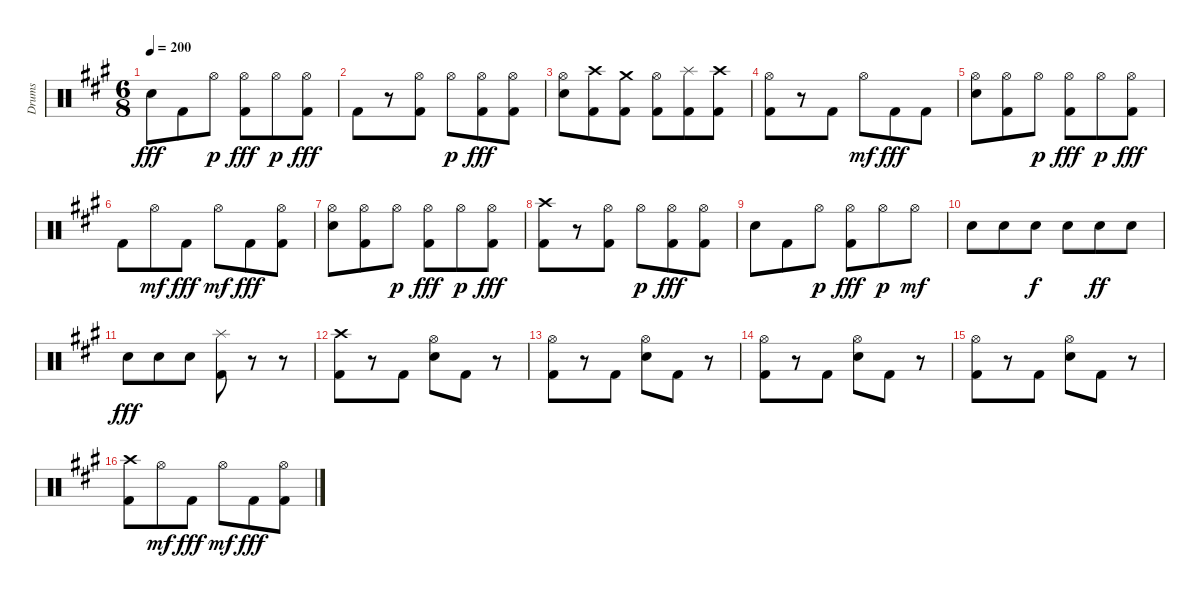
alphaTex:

\track ("Drums" "Drums") {instrument percussion}
\staff {score}
\articulation defaults
\ts (6 8)
\tempo 200
\clef neutral
\ks f#minor "Electric Snare (hit)".8{dy fff} "Kick (hit) 2".8 "Hi-Hat (open)".8{dy p}
("Hi-Hat (open)" "Kick (hit) 2").8{dy fff} "Hi-Hat (open)".8{dy p} ("Hi-Hat (open)" "Kick (hit) 2").8{dy fff} |
"Kick (hit) 2".8 r.8 ("Hi-Hat (open)" "Kick (hit) 2").8 "Hi-Hat (open)".8{dy p} ("Hi-Hat (open)" "Kick (hit) 2").8{dy fff} ("Hi-Hat (open)" "Kick (hit) 2").8 |
("Hi-Hat (open)" "Electric Snare (hit)").8 ("Crash high (hit)" "Kick (hit) 2").8 ("Crash medium (hit)" "Kick (hit) 2").8 ("Hi-Hat (open)" "Kick (hit) 2").8 ("Splash (hit)" "Kick (hit) 2").8 ("Crash high (hit)" "Kick (hit) 2").8 |
("Hi-Hat (open)" "Kick (hit) 2").8 r.8 "Kick (hit) 2".8 "Hi-Hat (open)".8{dy mf} "Kick (hit) 2".8{dy fff} "Kick (hit) 2".8 |
("Hi-Hat (open)" "Electric Snare (hit)").8 ("Hi-Hat (open)" "Kick (hit) 2").8 "Hi-Hat (open)".8{dy p} ("Hi-Hat (open)" "Kick (hit) 2").8{dy fff} "Hi-Hat (open)".8{dy p} ("Hi-Hat (open)" "Kick (hit) 2").8{dy fff} |
"Kick (hit) 2".8 "Hi-Hat (open)".8{dy mf} "Kick (hit) 2".8{dy fff} "Hi-Hat (open)".8{dy mf} "Kick (hit) 2".8{dy fff} ("Hi-Hat (open)" "Kick (hit) 2").8 |
("Hi-Hat (open)" "Electric Snare (hit)").8 ("Hi-Hat (open)" "Kick (hit) 2").8 "Hi-Hat (open)".8{dy p} ("Hi-Hat (open)" "Kick (hit) 2").8{dy fff} "Hi-Hat (open)".8{dy p} ("Hi-Hat (open)" "Kick (hit) 2").8{dy fff} |
("Crash high (hit)" "Kick (hit) 2").8 r.8 ("Hi-Hat (open)" "Kick (hit) 2").8 "Hi-Hat (open)".8{dy p} ("Hi-Hat (open)" "Kick (hit) 2").8{dy fff} ("Hi-Hat (open)" "Kick (hit) 2").8 |
"Electric Snare (hit)".8 "Kick (hit) 2".8 "Hi-Hat (open)".8{dy p} ("Hi-Hat (open)" "Kick (hit) 2").8{dy fff} "Hi-Hat (open)".8{dy p} "Hi-Hat (open)".8{dy mf} |
"Electric Snare (hit)".8 "Electric Snare (hit)".8 "Electric Snare (hit)".8{dy f} "Electric Snare (hit)".8 "Electric Snare (hit)".8{dy ff} "Electric Snare (hit)".8 |
"Electric Snare (hit)".8{dy fff} "Electric Snare (hit)".8 "Electric Snare (hit)".8 ("Splash (hit)" "Kick (hit) 2").8 r.8 r.8 |
("Crash high (hit)" "Kick (hit) 2").8 r.8 "Kick (hit) 2".8 ("Hi-Hat (open)" "Electric Snare (hit)").8 "Kick (hit) 2".8 r.8 |
("Hi-Hat (open)" "Kick (hit) 2").8 r.8 "Kick (hit) 2".8 ("Hi-Hat (open)" "Electric Snare (hit)").8 "Kick (hit) 2".8 r.8 |
("Hi-Hat (open)" "Kick (hit) 2").8 r.8 "Kick (hit) 2".8 ("Hi-Hat (open)" "Electric Snare (hit)").8 "Kick (hit) 2".8 r.8 |
("Hi-Hat (open)" "Kick (hit) 2").8 r.8 "Kick (hit) 2".8 ("Hi-Hat (open)" "Electric Snare (hit)").8 "Kick (hit) 2".8 r.8 |
("Crash high (hit)" "Kick (hit) 2").8 "Hi-Hat (open)".8{dy mf} "Kick (hit) 2".8{dy fff} "Hi-Hat (open)".8{dy mf} "Kick (hit) 2".8{dy fff} ("Hi-Hat (open)" "Kick (hit) 2").8
